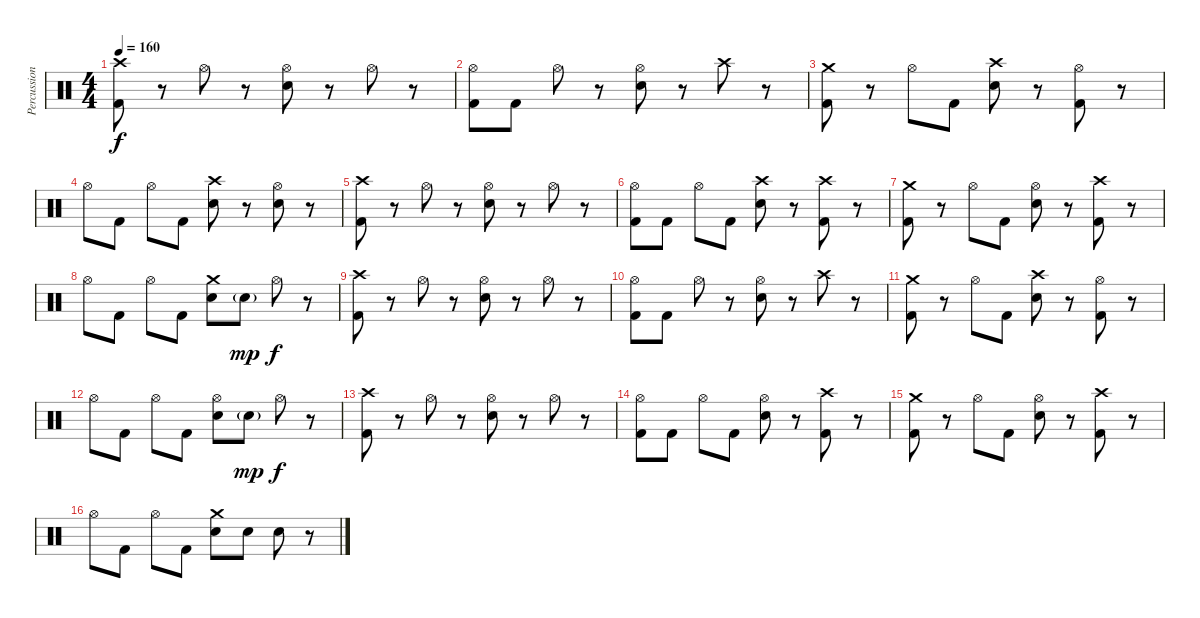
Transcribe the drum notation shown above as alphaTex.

\track ("Percussion" "Percussion") {instrument percussion}
\staff {score}
\articulation defaults
\ts (4 4)
\tempo 160
\clef neutral
\ks c
("Crash high (hit)" "Kick (hit) 2").8{dy f} r.8 "Hi-Hat (open)".8 r.8 ("Hi-Hat (open)" "Electric Snare (hit)").8 r.8 "Hi-Hat (open)".8 r.8 |
("Hi-Hat (open)" "Kick (hit) 2").8 "Kick (hit) 2".8 "Hi-Hat (open)".8 r.8 ("Hi-Hat (open)" "Electric Snare (hit)").8 r.8 "Crash high (hit)".8 r.8 |
("Crash medium (hit)" "Kick (hit) 2").8 r.8 "Hi-Hat (open)".8 "Kick (hit) 2".8 ("Crash high (hit)" "Electric Snare (hit)").8 r.8 ("Hi-Hat (open)" "Kick (hit) 2").8 r.8 |
"Hi-Hat (open)".8 "Kick (hit) 2".8 "Hi-Hat (open)".8 "Kick (hit) 2".8 ("Crash high (hit)" "Electric Snare (hit)").8 r.8 ("Hi-Hat (open)" "Electric Snare (hit)").8 r.8 |
("Crash high (hit)" "Kick (hit) 2").8 r.8 "Hi-Hat (open)".8 r.8 ("Hi-Hat (open)" "Electric Snare (hit)").8 r.8 "Hi-Hat (open)".8 r.8 |
("Hi-Hat (open)" "Kick (hit) 2").8 "Kick (hit) 2".8 "Hi-Hat (open)".8 "Kick (hit) 2".8 ("Crash high (hit)" "Electric Snare (hit)").8 r.8 ("Crash high (hit)" "Kick (hit) 2").8 r.8 |
("Crash medium (hit)" "Kick (hit) 2").8 r.8 "Hi-Hat (open)".8 "Kick (hit) 2".8 ("Hi-Hat (open)" "Electric Snare (hit)").8 r.8 ("Crash high (hit)" "Kick (hit) 2").8 r.8 |
"Hi-Hat (open)".8 "Kick (hit) 2".8 "Hi-Hat (open)".8 "Kick (hit) 2".8 ("Crash medium (hit)" "Electric Snare (hit)").8 "Electric Snare (hit)"{g}.8{dy mp} "Hi-Hat (open)".8{dy f} r.8 |
("Crash high (hit)" "Kick (hit) 2").8 r.8 "Hi-Hat (open)".8 r.8 ("Hi-Hat (open)" "Electric Snare (hit)").8 r.8 "Hi-Hat (open)".8 r.8 |
("Hi-Hat (open)" "Kick (hit) 2").8 "Kick (hit) 2".8 "Hi-Hat (open)".8 r.8 ("Hi-Hat (open)" "Electric Snare (hit)").8 r.8 "Crash high (hit)".8 r.8 |
("Crash medium (hit)" "Kick (hit) 2").8 r.8 "Hi-Hat (open)".8 "Kick (hit) 2".8 ("Crash high (hit)" "Electric Snare (hit)").8 r.8 ("Hi-Hat (open)" "Kick (hit) 2").8 r.8 |
"Hi-Hat (open)".8 "Kick (hit) 2".8 "Hi-Hat (open)".8 "Kick (hit) 2".8 ("Hi-Hat (open)" "Electric Snare (hit)").8 "Electric Snare (hit)"{g}.8{dy mp} "Hi-Hat (open)".8{dy f} r.8 |
("Crash high (hit)" "Kick (hit) 2").8 r.8 "Hi-Hat (open)".8 r.8 ("Hi-Hat (open)" "Electric Snare (hit)").8 r.8 "Hi-Hat (open)".8 r.8 |
("Hi-Hat (open)" "Kick (hit) 2").8 "Kick (hit) 2".8 "Hi-Hat (open)".8 "Kick (hit) 2".8 ("Hi-Hat (open)" "Electric Snare (hit)").8 r.8 ("Crash high (hit)" "Kick (hit) 2").8 r.8 |
("Crash medium (hit)" "Kick (hit) 2").8 r.8 "Hi-Hat (open)".8 "Kick (hit) 2".8 ("Hi-Hat (open)" "Electric Snare (hit)").8 r.8 ("Crash high (hit)" "Kick (hit) 2").8 r.8 |
"Hi-Hat (open)".8 "Kick (hit) 2".8 "Hi-Hat (open)".8 "Kick (hit) 2".8 ("Crash medium (hit)" "Electric Snare (hit)").8 "Electric Snare (hit)".8 "Electric Snare (hit)".8 r.8
